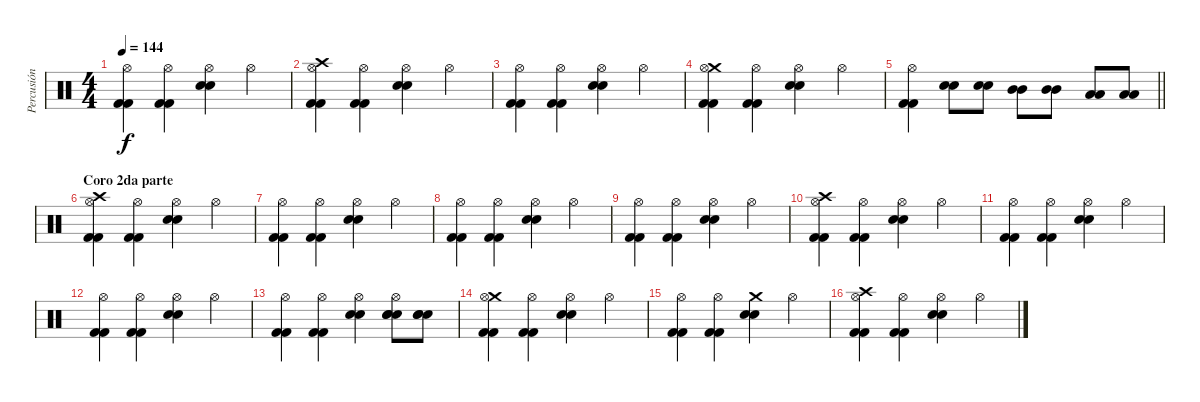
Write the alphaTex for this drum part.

\track ("Percusión" "Percusión") {instrument percussion}
\staff {score}
\articulation defaults
\ts (4 4)
\tempo 144
\clef neutral
\ks c
("Hi-Hat (open)" "Kick (hit) 2" "Kick (hit) 2").4{dy f} ("Hi-Hat (open)" "Kick (hit) 2" "Kick (hit) 2").4 ("Hi-Hat (open)" "Electric Snare (hit)" "Electric Snare (hit)").4 "Hi-Hat (open)".4 |
("Crash high (hit)" "Hi-Hat (open)" "Kick (hit) 2" "Kick (hit) 2").4 ("Hi-Hat (open)" "Kick (hit) 2" "Kick (hit) 2").4 ("Hi-Hat (open)" "Electric Snare (hit)" "Electric Snare (hit)").4 "Hi-Hat (open)".4 |
("Hi-Hat (open)" "Kick (hit) 2" "Kick (hit) 2").4 ("Hi-Hat (open)" "Kick (hit) 2" "Kick (hit) 2").4 ("Hi-Hat (open)" "Electric Snare (hit)" "Electric Snare (hit)").4 "Hi-Hat (open)".4 |
("Crash medium (hit)" "Hi-Hat (open)" "Kick (hit) 2" "Kick (hit) 2").4 ("Hi-Hat (open)" "Kick (hit) 2" "Kick (hit) 2").4 ("Hi-Hat (open)" "Electric Snare (hit)" "Electric Snare (hit)").4 "Hi-Hat (open)".4 |
\barLineRight lightlight
("Hi-Hat (open)" "Kick (hit) 2" "Kick (hit) 2").4 ("Electric Snare (hit)" "Electric Snare (hit)").8 ("Electric Snare (hit)" "Electric Snare (hit)").8 ("Mid Tom (hit)" "Mid Tom (hit)").8 ("Mid Tom (hit)" "Mid Tom (hit)").8 ("Low Tom (hit)" "Low Tom (hit)").8 ("Low Tom (hit)" "Low Tom (hit)").8 |
\section ("" "Coro 2da parte")
("Crash high (hit)" "Hi-Hat (open)" "Kick (hit) 2" "Kick (hit) 2").4 ("Hi-Hat (open)" "Kick (hit) 2" "Kick (hit) 2").4 ("Hi-Hat (open)" "Electric Snare (hit)" "Electric Snare (hit)").4 "Hi-Hat (open)".4 |
("Hi-Hat (open)" "Kick (hit) 2" "Kick (hit) 2").4 ("Hi-Hat (open)" "Kick (hit) 2" "Kick (hit) 2").4 ("Hi-Hat (open)" "Electric Snare (hit)" "Electric Snare (hit)").4 "Hi-Hat (open)".4 |
("Hi-Hat (open)" "Kick (hit) 2" "Kick (hit) 2").4 ("Hi-Hat (open)" "Kick (hit) 2" "Kick (hit) 2").4 ("Hi-Hat (open)" "Electric Snare (hit)" "Electric Snare (hit)").4 "Hi-Hat (open)".4 |
("Hi-Hat (open)" "Kick (hit) 2" "Kick (hit) 2").4 ("Hi-Hat (open)" "Kick (hit) 2" "Kick (hit) 2").4 ("Hi-Hat (open)" "Electric Snare (hit)" "Electric Snare (hit)").4 "Hi-Hat (open)".4 |
("Crash high (hit)" "Hi-Hat (open)" "Kick (hit) 2" "Kick (hit) 2").4 ("Hi-Hat (open)" "Kick (hit) 2" "Kick (hit) 2").4 ("Hi-Hat (open)" "Electric Snare (hit)" "Electric Snare (hit)").4 "Hi-Hat (open)".4 |
("Hi-Hat (open)" "Kick (hit) 2" "Kick (hit) 2").4 ("Hi-Hat (open)" "Kick (hit) 2" "Kick (hit) 2").4 ("Hi-Hat (open)" "Electric Snare (hit)" "Electric Snare (hit)").4 "Hi-Hat (open)".4 |
("Hi-Hat (open)" "Kick (hit) 2" "Kick (hit) 2").4 ("Hi-Hat (open)" "Kick (hit) 2" "Kick (hit) 2").4 ("Hi-Hat (open)" "Electric Snare (hit)" "Electric Snare (hit)").4 "Hi-Hat (open)".4 |
("Hi-Hat (open)" "Kick (hit) 2" "Kick (hit) 2").4 ("Hi-Hat (open)" "Kick (hit) 2" "Kick (hit) 2").4 ("Hi-Hat (open)" "Electric Snare (hit)" "Electric Snare (hit)").4 ("Hi-Hat (open)" "Electric Snare (hit)" "Electric Snare (hit)" "Electric Snare (hit)").8 ("Electric Snare (hit)" "Electric Snare (hit)" "Electric Snare (hit)").8 |
("Crash medium (hit)" "Hi-Hat (open)" "Kick (hit) 2" "Kick (hit) 2").4 ("Hi-Hat (open)" "Kick (hit) 2" "Kick (hit) 2").4 ("Hi-Hat (open)" "Electric Snare (hit)" "Electric Snare (hit)").4 "Hi-Hat (open)".4 |
("Hi-Hat (open)" "Kick (hit) 2" "Kick (hit) 2").4 ("Hi-Hat (open)" "Kick (hit) 2" "Kick (hit) 2").4 ("Crash medium (hit)" "Electric Snare (hit)" "Electric Snare (hit)").4 "Hi-Hat (open)".4 |
("Crash high (hit)" "Hi-Hat (open)" "Kick (hit) 2" "Kick (hit) 2").4 ("Hi-Hat (open)" "Kick (hit) 2" "Kick (hit) 2").4 ("Hi-Hat (open)" "Electric Snare (hit)" "Electric Snare (hit)").4 "Hi-Hat (open)".4
